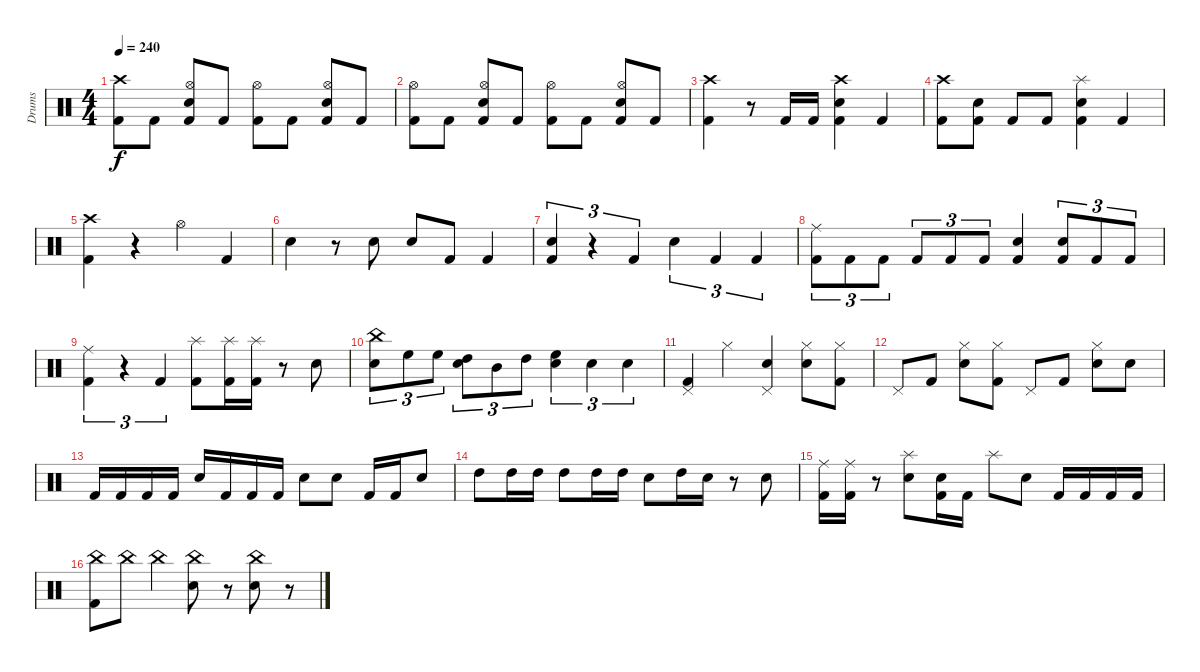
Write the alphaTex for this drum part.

\track ("Drums" "Drums") {instrument percussion}
\staff {score}
\articulation defaults
\ts (4 4)
\tempo 240
\clef neutral
\ks c
("Crash high (hit)" "Kick (hit) 2").8{dy f} "Kick (hit) 2".8 ("Hi-Hat (open)" "Snare (hit) 2" "Kick (hit) 2").8 "Kick (hit) 2".8 ("Hi-Hat (open)" "Kick (hit) 2").8 "Kick (hit) 2".8 ("Hi-Hat (open)" "Snare (hit) 2" "Kick (hit) 2").8 "Kick (hit) 2".8 |
("Hi-Hat (open)" "Kick (hit) 2").8 "Kick (hit) 2".8 ("Hi-Hat (open)" "Snare (hit) 2" "Kick (hit) 2").8 "Kick (hit) 2".8 ("Hi-Hat (open)" "Kick (hit) 2").8 "Kick (hit) 2".8 ("Hi-Hat (open)" "Snare (hit) 2" "Kick (hit) 2").8 "Kick (hit) 2".8 |
("Crash high (hit)" "Kick (hit) 2").4 r.8 "Kick (hit) 2".16 "Kick (hit) 2".16 ("Crash high (hit)" "Snare (hit) 2" "Kick (hit) 2").4 "Kick (hit) 2".4 |
("Crash high (hit)" "Kick (hit) 2").8 ("Snare (hit) 2" "Kick (hit) 2").8 "Kick (hit) 2".8 "Kick (hit) 2".8 ("Splash (hit)" "Snare (hit) 2" "Kick (hit) 2").4 "Kick (hit) 2".4 |
("Crash high (hit)" "Kick (hit) 2").4 r.4 "Hi-Hat (open)".4 "Kick (hit) 2".4 |
"Electric Snare (hit)".4 r.8 "Electric Snare (hit)".8 "Electric Snare (hit)".8 "Kick (hit) 2".8 "Kick (hit) 2".4 |
("Snare (hit) 2" "Kick (hit) 2").4{tu (3 2)} r.4{tu (3 2)} "Kick (hit) 2".4{tu (3 2)} "Snare (hit) 2".4{tu (3 2)} "Kick (hit) 2".4{tu (3 2)} "Kick (hit) 2".4{tu (3 2)} |
("Ride (middle)" "Kick (hit) 2").8{tu (3 2)} "Kick (hit) 2".8{tu (3 2)} "Kick (hit) 2".8{tu (3 2)} "Kick (hit) 2".8{tu (3 2)} "Kick (hit) 2".8{tu (3 2)} "Kick (hit) 2".8{tu (3 2)} ("Snare (hit) 2" "Kick (hit) 2").4 ("Snare (hit) 2" "Kick (hit) 2").8{tu (3 2)} "Kick (hit) 2".8{tu (3 2)} "Kick (hit) 2".8{tu (3 2)} |
("Ride (middle)" "Kick (hit) 2").4{tu (3 2)} r.4{tu (3 2)} "Kick (hit) 2".4{tu (3 2)} ("Splash (hit)" "Kick (hit) 2").8 ("Splash (hit)" "Kick (hit) 2").16 ("Splash (hit)" "Kick (hit) 2").16 r.8 "Snare (hit) 2".8 |
("China (hit)" "Snare (hit) 2").8{tu (3 2)} "High Floor Tom (hit)".8{tu (3 2)} "High Floor Tom (hit)".8{tu (3 2)} ("High Tom (hit)" "Snare (hit) 2").8{tu (3 2)} "Mid Tom (hit)".8{tu (3 2)} "High Tom (hit)".8{tu (3 2)} ("High Floor Tom (hit)" "Snare (hit) 2").4{tu (3 2)} "Snare (hit) 2".4{tu (3 2)} "Snare (hit) 2".4{tu (3 2)} |
("Pedal Hi-Hat (hit)" "Kick (hit) 2").4 "Hi-Hat (closed)".4 ("Pedal Hi-Hat (hit)" "Snare (hit) 2").4 ("Hi-Hat (closed)" "Snare (hit) 2").8 ("Hi-Hat (closed)" "Kick (hit) 2").8 |
"Pedal Hi-Hat (hit)".8 "Kick (hit) 2".8 ("Hi-Hat (closed)" "Snare (hit) 2").8 ("Hi-Hat (closed)" "Kick (hit) 2").8 "Pedal Hi-Hat (hit)".8 "Kick (hit) 2".8 ("Hi-Hat (closed)" "Snare (hit) 2").8 "Snare (hit) 2".8 |
"Kick (hit) 2".16 "Kick (hit) 2".16 "Kick (hit) 2".16 "Kick (hit) 2".16 "Snare (hit) 2".16 "Kick (hit) 2".16 "Kick (hit) 2".16 "Kick (hit) 2".16 "Snare (hit) 2".8 "Snare (hit) 2".8 "Kick (hit) 2".16 "Kick (hit) 2".16 "Snare (hit) 2".8 |
"High Tom (hit)".8 "High Tom (hit)".16 "High Tom (hit)".16 "High Tom (hit)".8 "High Tom (hit)".16 "High Tom (hit)".16 "Snare (hit) 2".8 "High Tom (hit)".16 "Snare (hit) 2".16 r.8 "Snare (hit) 2".8 |
("Ride (middle)" "Kick (hit) 2").16 ("Ride (middle)" "Kick (hit) 2").16 r.8 ("Splash (hit)" "Snare (hit) 2").8 ("Snare (hit) 2" "Kick (hit) 2").16 "Kick (hit) 2".16 "Splash (hit)".8 "Snare (hit) 2".8 "Kick (hit) 2".16 "Kick (hit) 2".16 "Kick (hit) 2".16 "Kick (hit) 2".16 |
("China (hit)" "Kick (hit) 2").8 "China (hit)".8 "China (hit)".4 ("China (hit)" "Snare (hit) 2").8 r.8 ("China (hit)" "Snare (hit) 2").8 r.8
